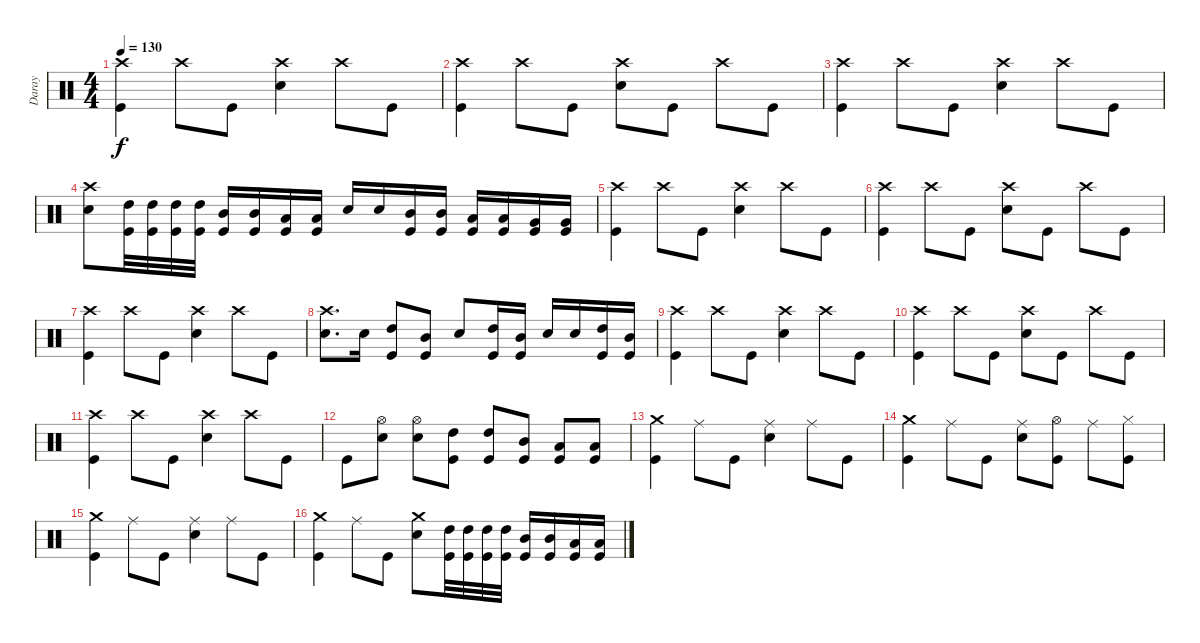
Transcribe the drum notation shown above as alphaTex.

\track ("Daray" "Daray") {instrument percussion}
\staff {score}
\articulation defaults
\ts (4 4)
\tempo 130
\clef neutral
\ks c
("Crash high (hit)" "Kick (hit)").4{dy f} "Crash high (hit)".8 "Kick (hit)".8 ("Crash high (hit)" "Electric Snare (hit)").4 "Crash high (hit)".8 "Kick (hit)".8 |
("Crash high (hit)" "Kick (hit)").4 "Crash high (hit)".8 "Kick (hit)".8 ("Crash high (hit)" "Electric Snare (hit)").8 "Kick (hit)".8 "Crash high (hit)".8 "Kick (hit)".8 |
("Crash high (hit)" "Kick (hit)").4 "Crash high (hit)".8 "Kick (hit)".8 ("Crash high (hit)" "Electric Snare (hit)").4 "Crash high (hit)".8 "Kick (hit)".8 |
("Crash high (hit)" "Electric Snare (hit)").8 ("High Tom (hit)" "Kick (hit)").32 ("High Tom (hit)" "Kick (hit)").32 ("High Tom (hit)" "Kick (hit)").32 ("High Tom (hit)" "Kick (hit)").32 ("Mid Tom (hit)" "Kick (hit)").16 ("Mid Tom (hit)" "Kick (hit)").16 ("Low Tom (hit)" "Kick (hit)").16 ("Low Tom (hit)" "Kick (hit)").16 "Electric Snare (hit)".16 "Electric Snare (hit)".16 ("Mid Tom (hit)" "Kick (hit)").16 ("Mid Tom (hit)" "Kick (hit)").16 ("Low Tom (hit)" "Kick (hit)").16 ("Low Tom (hit)" "Kick (hit)").16 ("Very Low Tom (hit)" "Kick (hit)").16 ("Very Low Tom (hit)" "Kick (hit)").16 |
("Crash high (hit)" "Kick (hit)").4 "Crash high (hit)".8 "Kick (hit)".8 ("Crash high (hit)" "Electric Snare (hit)").4 "Crash high (hit)".8 "Kick (hit)".8 |
("Crash high (hit)" "Kick (hit)").4 "Crash high (hit)".8 "Kick (hit)".8 ("Crash high (hit)" "Electric Snare (hit)").8 "Kick (hit)".8 "Crash high (hit)".8 "Kick (hit)".8 |
("Crash high (hit)" "Kick (hit)").4 "Crash high (hit)".8 "Kick (hit)".8 ("Crash high (hit)" "Electric Snare (hit)").4 "Crash high (hit)".8 "Kick (hit)".8 |
("Crash high (hit)" "Electric Snare (hit)").8{d} "Electric Snare (hit)".16 ("High Tom (hit)" "Kick (hit)").8 ("Mid Tom (hit)" "Kick (hit)").8 "Electric Snare (hit)".8 ("High Tom (hit)" "Kick (hit)").16 ("Mid Tom (hit)" "Kick (hit)").16 "Electric Snare (hit)".16 "Electric Snare (hit)".16 ("High Tom (hit)" "Kick (hit)").16 ("Mid Tom (hit)" "Kick (hit)").16 |
("Crash high (hit)" "Kick (hit)").4 "Crash high (hit)".8 "Kick (hit)".8 ("Crash high (hit)" "Electric Snare (hit)").4 "Crash high (hit)".8 "Kick (hit)".8 |
("Crash high (hit)" "Kick (hit)").4 "Crash high (hit)".8 "Kick (hit)".8 ("Crash high (hit)" "Electric Snare (hit)").8 "Kick (hit)".8 "Crash high (hit)".8 "Kick (hit)".8 |
("Crash high (hit)" "Kick (hit)").4 "Crash high (hit)".8 "Kick (hit)".8 ("Crash high (hit)" "Electric Snare (hit)").4 "Crash high (hit)".8 "Kick (hit)".8 |
"Kick (hit)".8 ("Hi-Hat (open)" "Electric Snare (hit)").8 ("Hi-Hat (open)" "Electric Snare (hit)").8 ("High Tom (hit)" "Kick (hit)").8 ("High Tom (hit)" "Kick (hit)").8 ("Mid Tom (hit)" "Kick (hit)").8 ("Low Tom (hit)" "Kick (hit)").8 ("Low Tom (hit)" "Kick (hit)").8 |
("Crash medium (hit)" "Kick (hit)").4 "Ride (middle)".8 "Kick (hit)".8 ("Ride (middle)" "Electric Snare (hit)").4 "Ride (middle)".8 "Kick (hit)".8 |
("Crash medium (hit)" "Kick (hit)").4 "Ride (middle)".8 "Kick (hit)".8 ("Ride (middle)" "Electric Snare (hit)").8 ("Hi-Hat (open)" "Kick (hit)").8 "Ride (middle)".8 ("Hi-Hat (closed)" "Kick (hit)").8 |
("Crash medium (hit)" "Kick (hit)").4 "Ride (middle)".8 "Kick (hit)".8 ("Ride (middle)" "Electric Snare (hit)").4 "Ride (middle)".8 "Kick (hit)".8 |
("Crash medium (hit)" "Kick (hit)").4 "Ride (middle)".8 "Kick (hit)".8 ("Crash medium (hit)" "Electric Snare (hit)").8 ("High Tom (hit)" "Kick (hit)").32 ("High Tom (hit)" "Kick (hit)").32 ("High Tom (hit)" "Kick (hit)").32 ("High Tom (hit)" "Kick (hit)").32 ("Mid Tom (hit)" "Kick (hit)").16 ("Mid Tom (hit)" "Kick (hit)").16 ("Low Tom (hit)" "Kick (hit)").16 ("Low Tom (hit)" "Kick (hit)").16
